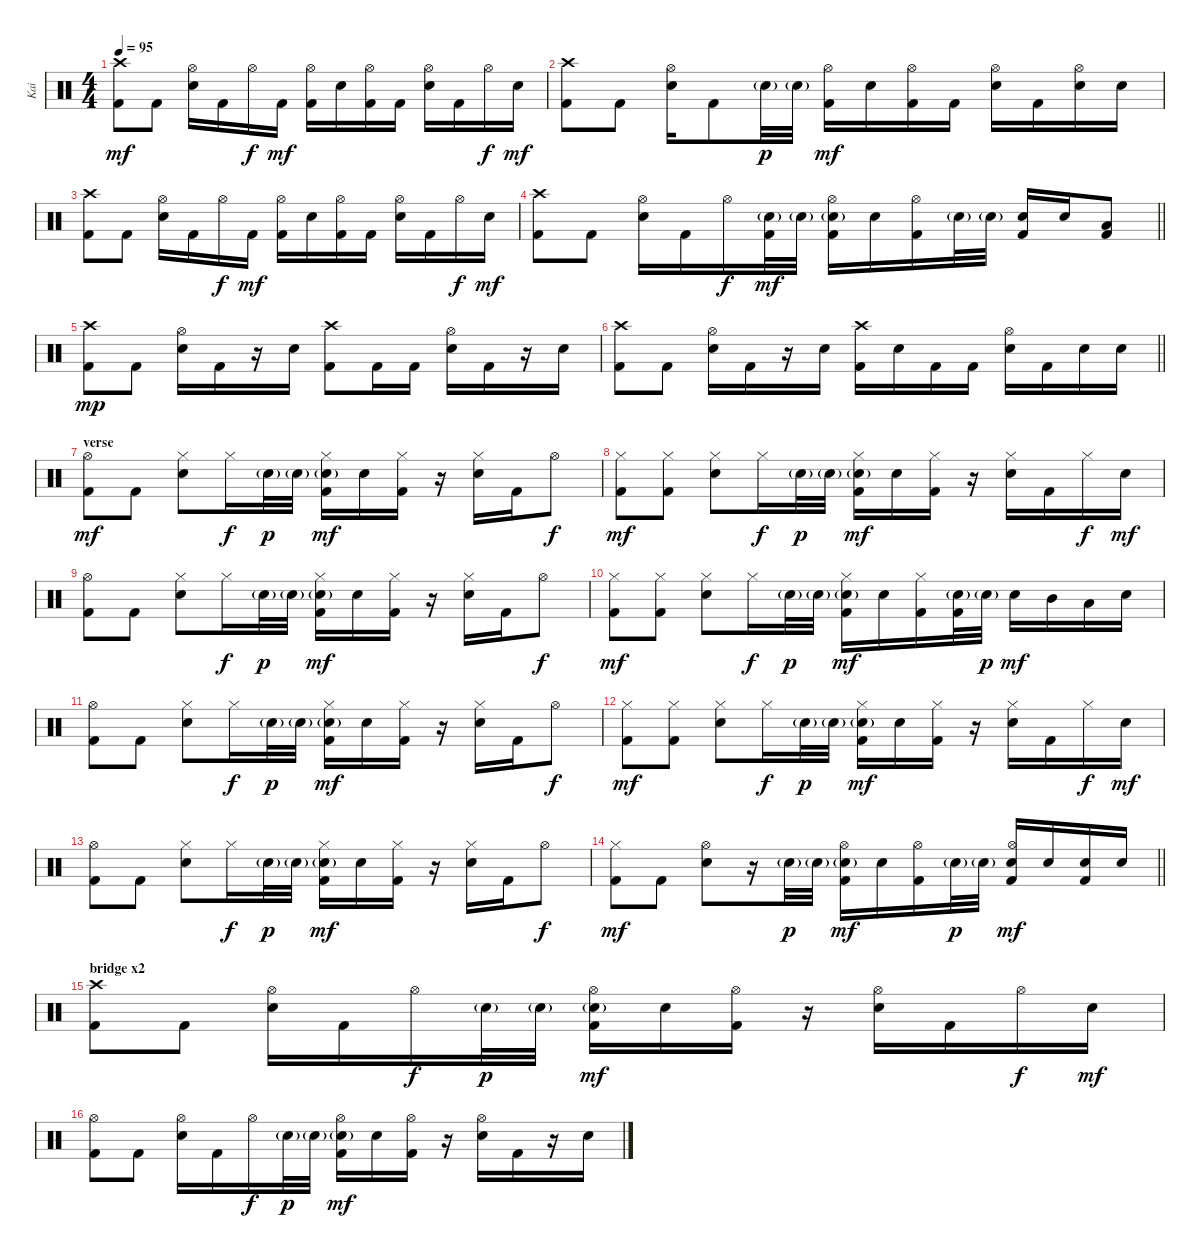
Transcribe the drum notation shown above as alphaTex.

\track ("Kai" "Kai") {instrument percussion}
\staff {score}
\articulation defaults
\ts (4 4)
\tempo 95
\clef neutral
\ks c
("Crash high (hit)" "Kick (hit) 2").8{dy mf} "Kick (hit) 2".8 ("Hi-Hat (open)" "Electric Snare (hit)").16 "Kick (hit) 2".16 "Hi-Hat (open)".16{dy f} "Kick (hit) 2".16{dy mf} ("Hi-Hat (open)" "Kick (hit) 2").16 "Electric Snare (hit)".16 ("Hi-Hat (open)" "Kick (hit) 2").16 "Kick (hit) 2".16 ("Hi-Hat (open)" "Electric Snare (hit)").16 "Kick (hit) 2".16 "Hi-Hat (open)".16{dy f} "Electric Snare (hit)".16{dy mf} |
("Crash high (hit)" "Kick (hit) 2").8 "Kick (hit) 2".8 ("Hi-Hat (open)" "Electric Snare (hit)").16 "Kick (hit) 2".8 "Electric Snare (hit)"{g}.32{dy p} "Electric Snare (hit)"{g}.32 ("Hi-Hat (open)" "Kick (hit) 2").16{dy mf} "Electric Snare (hit)".16 ("Hi-Hat (open)" "Kick (hit) 2").16 "Kick (hit) 2".16 ("Hi-Hat (open)" "Electric Snare (hit)").16 "Kick (hit) 2".16 ("Hi-Hat (open)" "Electric Snare (hit)").16 "Electric Snare (hit)".16 |
("Crash high (hit)" "Kick (hit) 2").8 "Kick (hit) 2".8 ("Hi-Hat (open)" "Electric Snare (hit)").16 "Kick (hit) 2".16 "Hi-Hat (open)".16{dy f} "Kick (hit) 2".16{dy mf} ("Hi-Hat (open)" "Kick (hit) 2").16 "Electric Snare (hit)".16 ("Hi-Hat (open)" "Kick (hit) 2").16 "Kick (hit) 2".16 ("Hi-Hat (open)" "Electric Snare (hit)").16 "Kick (hit) 2".16 "Hi-Hat (open)".16{dy f} "Electric Snare (hit)".16{dy mf} |
\barLineRight lightlight
("Crash high (hit)" "Kick (hit) 2").8 "Kick (hit) 2".8 ("Hi-Hat (open)" "Electric Snare (hit)").16 "Kick (hit) 2".16 "Hi-Hat (open)".16{dy f} ("Electric Snare (hit)"{g} "Kick (hit) 2").32{dy mf} "Electric Snare (hit)"{g}.32 ("Hi-Hat (open)" "Electric Snare (hit)"{g} "Kick (hit) 2").16 "Electric Snare (hit)".16 ("Hi-Hat (open)" "Kick (hit) 2").16 "Electric Snare (hit)"{g}.32 "Electric Snare (hit)"{g}.32 ("Electric Snare (hit)" "Kick (hit) 2").16 "Electric Snare (hit)".16 ("Low Tom (hit)" "Kick (hit) 2").8 |
\section ("" "")
("Crash high (hit)" "Kick (hit) 2").8{dy mp} "Kick (hit) 2".8 ("Hi-Hat (open)" "Electric Snare (hit)").16 "Kick (hit) 2".16 r.16 "Electric Snare (hit)".16 ("Crash high (hit)" "Kick (hit) 2").8 "Kick (hit) 2".16 "Kick (hit) 2".16 ("Hi-Hat (open)" "Electric Snare (hit)").16 "Kick (hit) 2".16 r.16 "Electric Snare (hit)".16 |
\barLineRight lightlight
("Crash high (hit)" "Kick (hit) 2").8 "Kick (hit) 2".8 ("Hi-Hat (open)" "Electric Snare (hit)").16 "Kick (hit) 2".16 r.16 "Electric Snare (hit)".16 ("Crash high (hit)" "Kick (hit) 2").16 "Electric Snare (hit)".16 "Kick (hit) 2".16 "Kick (hit) 2".16 ("Hi-Hat (open)" "Electric Snare (hit)").16 "Kick (hit) 2".16 "Electric Snare (hit)".16 "Electric Snare (hit)".16 |
\section ("" "verse")
("Hi-Hat (open)" "Kick (hit) 2").8{dy mf} "Kick (hit) 2".8 ("Hi-Hat (closed)" "Electric Snare (hit)").8 "Hi-Hat (closed)".16{dy f} "Electric Snare (hit)"{g}.32{dy p} "Electric Snare (hit)"{g}.32 ("Hi-Hat (closed)" "Electric Snare (hit)"{g} "Kick (hit) 2").16{dy mf} "Electric Snare (hit)".16 ("Hi-Hat (closed)" "Kick (hit) 2").16 r.16 ("Hi-Hat (closed)" "Electric Snare (hit)").16 "Kick (hit) 2".16 "Hi-Hat (open)".8{dy f} |
("Hi-Hat (closed)" "Kick (hit) 2").8{dy mf} ("Hi-Hat (closed)" "Kick (hit) 2").8 ("Hi-Hat (closed)" "Electric Snare (hit)").8 "Hi-Hat (closed)".16{dy f} "Electric Snare (hit)"{g}.32{dy p} "Electric Snare (hit)"{g}.32 ("Hi-Hat (closed)" "Electric Snare (hit)"{g} "Kick (hit) 2").16{dy mf} "Electric Snare (hit)".16 ("Hi-Hat (closed)" "Kick (hit) 2").16 r.16 ("Hi-Hat (closed)" "Electric Snare (hit)").16 "Kick (hit) 2".16 "Hi-Hat (closed)".16{dy f} "Electric Snare (hit)".16{dy mf} |
("Hi-Hat (open)" "Kick (hit) 2").8 "Kick (hit) 2".8 ("Hi-Hat (closed)" "Electric Snare (hit)").8 "Hi-Hat (closed)".16{dy f} "Electric Snare (hit)"{g}.32{dy p} "Electric Snare (hit)"{g}.32 ("Hi-Hat (closed)" "Electric Snare (hit)"{g} "Kick (hit) 2").16{dy mf} "Electric Snare (hit)".16 ("Hi-Hat (closed)" "Kick (hit) 2").16 r.16 ("Hi-Hat (closed)" "Electric Snare (hit)").16 "Kick (hit) 2".16 "Hi-Hat (open)".8{dy f} |
("Hi-Hat (closed)" "Kick (hit) 2").8{dy mf} ("Hi-Hat (closed)" "Kick (hit) 2").8 ("Hi-Hat (closed)" "Electric Snare (hit)").8 "Hi-Hat (closed)".16{dy f} "Electric Snare (hit)"{g}.32{dy p} "Electric Snare (hit)"{g}.32 ("Hi-Hat (closed)" "Electric Snare (hit)"{g} "Kick (hit) 2").16{dy mf} "Electric Snare (hit)".16 ("Hi-Hat (closed)" "Kick (hit) 2").16 ("Electric Snare (hit)"{g} "Kick (hit) 2").32 "Electric Snare (hit)"{g}.32{dy p} "Electric Snare (hit)".16{dy mf} "Mid Tom (hit)".16 "Low Tom (hit)".16 "Electric Snare (hit)".16 |
("Hi-Hat (open)" "Kick (hit) 2").8 "Kick (hit) 2".8 ("Hi-Hat (closed)" "Electric Snare (hit)").8 "Hi-Hat (closed)".16{dy f} "Electric Snare (hit)"{g}.32{dy p} "Electric Snare (hit)"{g}.32 ("Hi-Hat (closed)" "Electric Snare (hit)"{g} "Kick (hit) 2").16{dy mf} "Electric Snare (hit)".16 ("Hi-Hat (closed)" "Kick (hit) 2").16 r.16 ("Hi-Hat (closed)" "Electric Snare (hit)").16 "Kick (hit) 2".16 "Hi-Hat (open)".8{dy f} |
("Hi-Hat (closed)" "Kick (hit) 2").8{dy mf} ("Hi-Hat (closed)" "Kick (hit) 2").8 ("Hi-Hat (closed)" "Electric Snare (hit)").8 "Hi-Hat (closed)".16{dy f} "Electric Snare (hit)"{g}.32{dy p} "Electric Snare (hit)"{g}.32 ("Hi-Hat (closed)" "Electric Snare (hit)"{g} "Kick (hit) 2").16{dy mf} "Electric Snare (hit)".16 ("Hi-Hat (closed)" "Kick (hit) 2").16 r.16 ("Hi-Hat (closed)" "Electric Snare (hit)").16 "Kick (hit) 2".16 "Hi-Hat (closed)".16{dy f} "Electric Snare (hit)".16{dy mf} |
("Hi-Hat (open)" "Kick (hit) 2").8 "Kick (hit) 2".8 ("Hi-Hat (closed)" "Electric Snare (hit)").8 "Hi-Hat (closed)".16{dy f} "Electric Snare (hit)"{g}.32{dy p} "Electric Snare (hit)"{g}.32 ("Hi-Hat (closed)" "Electric Snare (hit)"{g} "Kick (hit) 2").16{dy mf} "Electric Snare (hit)".16 ("Hi-Hat (closed)" "Kick (hit) 2").16 r.16 ("Hi-Hat (closed)" "Electric Snare (hit)").16 "Kick (hit) 2".16 "Hi-Hat (open)".8{dy f} |
\barLineRight lightlight
("Hi-Hat (closed)" "Kick (hit) 2").8{dy mf} "Kick (hit) 2".8 ("Hi-Hat (open)" "Electric Snare (hit)").8 r.16 "Electric Snare (hit)"{g}.32{dy p} "Electric Snare (hit)"{g}.32 ("Hi-Hat (open)" "Electric Snare (hit)"{g} "Kick (hit) 2").16{dy mf} "Electric Snare (hit)".16 ("Hi-Hat (open)" "Kick (hit) 2").16 "Electric Snare (hit)"{g}.32{dy p} "Electric Snare (hit)"{g}.32 ("Hi-Hat (open)" "Electric Snare (hit)" "Kick (hit) 2").16{dy mf} "Electric Snare (hit)".16 ("Electric Snare (hit)" "Kick (hit) 2").16 "Electric Snare (hit)".16 |
\section ("" "bridge x2")
("Crash high (hit)" "Kick (hit) 2").8 "Kick (hit) 2".8 ("Hi-Hat (open)" "Electric Snare (hit)").16 "Kick (hit) 2".16 "Hi-Hat (open)".16{dy f} "Electric Snare (hit)"{g}.32{dy p} "Electric Snare (hit)"{g}.32 ("Hi-Hat (open)" "Electric Snare (hit)"{g} "Kick (hit) 2").16{dy mf} "Electric Snare (hit)".16 ("Hi-Hat (open)" "Kick (hit) 2").16 r.16 ("Hi-Hat (open)" "Electric Snare (hit)").16 "Kick (hit) 2".16 "Hi-Hat (open)".16{dy f} "Electric Snare (hit)".16{dy mf} |
("Hi-Hat (open)" "Kick (hit) 2").8 "Kick (hit) 2".8 ("Hi-Hat (open)" "Electric Snare (hit)").16 "Kick (hit) 2".16 "Hi-Hat (open)".16{dy f} "Electric Snare (hit)"{g}.32{dy p} "Electric Snare (hit)"{g}.32 ("Hi-Hat (open)" "Electric Snare (hit)"{g} "Kick (hit) 2").16{dy mf} "Electric Snare (hit)".16 ("Hi-Hat (open)" "Kick (hit) 2").16 r.16 ("Hi-Hat (open)" "Electric Snare (hit)").16 "Kick (hit) 2".16 r.16 "Electric Snare (hit)".16
